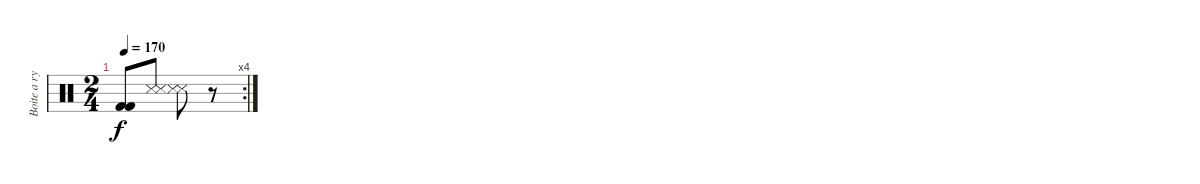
\track ("Boite a rythme" "Boite a ry") {instrument percussion}
\staff {score}
\articulation defaults
\rc 4
\ts (2 4)
\tempo 170
\clef neutral
\ks c
("Kick (hit) 2" "Kick (hit) 2").8{dy f} ("Metronome (hit)" "Metronome (hit)").8 ("Metronome (hit)" "Metronome (hit)").8 r.8
